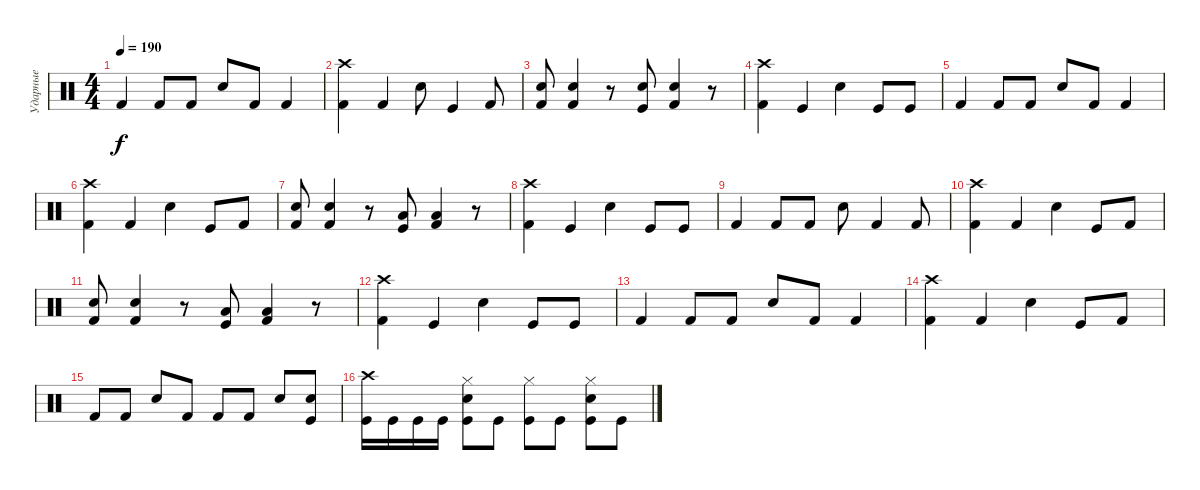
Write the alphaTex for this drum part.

\track ("Ударные" "Ударные") {instrument percussion}
\staff {score}
\articulation defaults
\ts (4 4)
\tempo 190
\clef neutral
\ks c "Kick (hit) 2".4{dy f} "Kick (hit) 2".8 "Kick (hit) 2".8 "Electric Snare (hit)".8 "Kick (hit) 2".8 "Kick (hit) 2".4
|
("Crash high (hit)" "Kick (hit) 2").4 "Kick (hit) 2".4 "Electric Snare (hit)".8 "Kick (hit)".4 "Kick (hit) 2".8 |
("Electric Snare (hit)" "Kick (hit) 2").8 ("Electric Snare (hit)" "Kick (hit) 2").4 r.8 ("Electric Snare (hit)" "Kick (hit)").8 ("Electric Snare (hit)" "Kick (hit) 2").4 r.8 |
("Crash high (hit)" "Kick (hit) 2").4 "Kick (hit)".4 "Electric Snare (hit)".4 "Kick (hit)".8 "Kick (hit)".8 |
"Kick (hit) 2".4 "Kick (hit) 2".8 "Kick (hit) 2".8 "Electric Snare (hit)".8 "Kick (hit) 2".8 "Kick (hit) 2".4 |
("Crash high (hit)" "Kick (hit) 2").4 "Kick (hit) 2".4 "Electric Snare (hit)".4 "Kick (hit)".8 "Kick (hit) 2".8 |
("Electric Snare (hit)" "Kick (hit) 2").8 ("Electric Snare (hit)" "Kick (hit) 2").4 r.8 ("Low Tom (hit)" "Kick (hit)").8 ("Low Tom (hit)" "Kick (hit) 2").4 r.8 |
("Crash high (hit)" "Kick (hit) 2").4 "Kick (hit)".4 "Electric Snare (hit)".4 "Kick (hit)".8 "Kick (hit)".8 |
"Kick (hit) 2".4 "Kick (hit) 2".8 "Kick (hit) 2".8 "Electric Snare (hit)".8 "Kick (hit) 2".4 "Kick (hit) 2".8 |
("Crash high (hit)" "Kick (hit) 2").4 "Kick (hit) 2".4 "Electric Snare (hit)".4 "Kick (hit)".8 "Kick (hit) 2".8 |
("Electric Snare (hit)" "Kick (hit) 2").8 ("Electric Snare (hit)" "Kick (hit) 2").4 r.8 ("Low Tom (hit)" "Kick (hit)").8 ("Low Tom (hit)" "Kick (hit) 2").4 r.8 |
("Crash high (hit)" "Kick (hit) 2").4 "Kick (hit)".4 "Electric Snare (hit)".4 "Kick (hit)".8 "Kick (hit)".8 |
"Kick (hit) 2".4 "Kick (hit) 2".8 "Kick (hit) 2".8 "Electric Snare (hit)".8 "Kick (hit) 2".8 "Kick (hit) 2".4 |
("Crash high (hit)" "Kick (hit) 2").4 "Kick (hit) 2".4 "Electric Snare (hit)".4 "Kick (hit)".8 "Kick (hit) 2".8 |
"Kick (hit) 2".8 "Kick (hit) 2".8 "Electric Snare (hit)".8 "Kick (hit) 2".8 "Kick (hit) 2".8 "Kick (hit) 2".8 "Electric Snare (hit)".8 ("Electric Snare (hit)" "Kick (hit)").8 |
("Crash high (hit)" "Kick (hit)").16 "Kick (hit)".16 "Kick (hit)".16 "Kick (hit)".16 ("Hi-Hat (closed)" "Electric Snare (hit)" "Kick (hit)").8 "Kick (hit)".8 ("Hi-Hat (closed)" "Kick (hit)").8 "Kick (hit)".8 ("Hi-Hat (closed)" "Electric Snare (hit)" "Kick (hit)").8 "Kick (hit)".8
